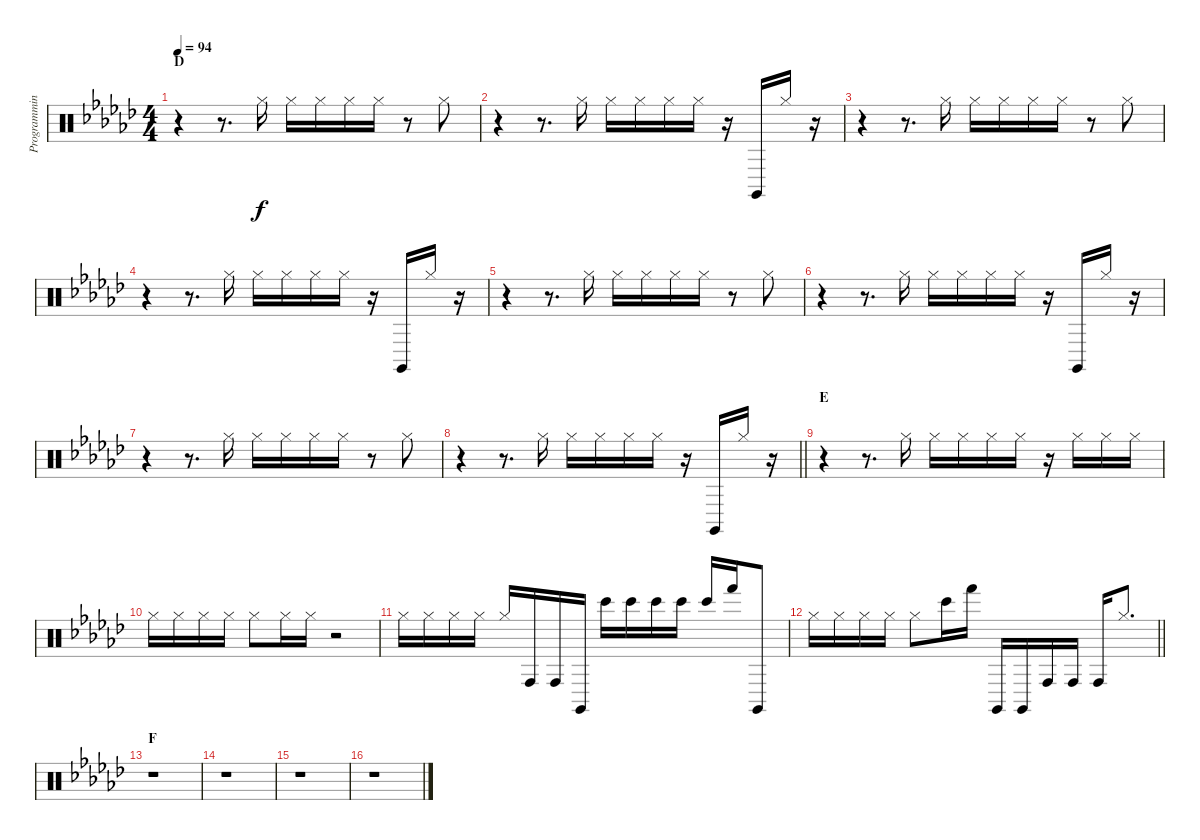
\track ("Programming" "Programmin") {instrument percussion}
\staff {score}
\articulation defaults
\ts (4 4)
\section ("" "D")
\tempo 94
\clef neutral
\ks gb
r.4{dy f} r.8{d} "Hi-Hat (closed)".16 "Hi-Hat (closed)".16 "Hi-Hat (closed)".16 "Hi-Hat (closed)".16 "Hi-Hat (closed)".16 r.8 "Hi-Hat (closed)".8 |
r.4 r.8{d} "Hi-Hat (closed)".16 "Hi-Hat (closed)".16 "Hi-Hat (closed)".16 "Hi-Hat (closed)".16 "Hi-Hat (closed)".16 r.16 "Claves (hit)".16 "Hi-Hat (closed)".16 r.16 |
r.4 r.8{d} "Hi-Hat (closed)".16 "Hi-Hat (closed)".16 "Hi-Hat (closed)".16 "Hi-Hat (closed)".16 "Hi-Hat (closed)".16 r.8 "Hi-Hat (closed)".8 |
r.4 r.8{d} "Hi-Hat (closed)".16 "Hi-Hat (closed)".16 "Hi-Hat (closed)".16 "Hi-Hat (closed)".16 "Hi-Hat (closed)".16 r.16 "Claves (hit)".16 "Hi-Hat (closed)".16 r.16 |
r.4 r.8{d} "Hi-Hat (closed)".16 "Hi-Hat (closed)".16 "Hi-Hat (closed)".16 "Hi-Hat (closed)".16 "Hi-Hat (closed)".16 r.8 "Hi-Hat (closed)".8 |
r.4 r.8{d} "Hi-Hat (closed)".16 "Hi-Hat (closed)".16 "Hi-Hat (closed)".16 "Hi-Hat (closed)".16 "Hi-Hat (closed)".16 r.16 "Claves (hit)".16 "Hi-Hat (closed)".16 r.16 |
r.4 r.8{d} "Hi-Hat (closed)".16 "Hi-Hat (closed)".16 "Hi-Hat (closed)".16 "Hi-Hat (closed)".16 "Hi-Hat (closed)".16 r.8 "Hi-Hat (closed)".8 |
\barLineRight lightlight
r.4 r.8{d} "Hi-Hat (closed)".16 "Hi-Hat (closed)".16 "Hi-Hat (closed)".16 "Hi-Hat (closed)".16 "Hi-Hat (closed)".16 r.16 "Claves (hit)".16 "Hi-Hat (closed)".16 r.16 |
\section ("" "E")
r.4 r.8{d} "Hi-Hat (closed)".16 "Hi-Hat (closed)".16 "Hi-Hat (closed)".16 "Hi-Hat (closed)".16 "Hi-Hat (closed)".16 r.16 "Hi-Hat (closed)".16 "Hi-Hat (closed)".16 "Hi-Hat (closed)".16 |
"Hi-Hat (closed)".16 "Hi-Hat (closed)".16 "Hi-Hat (closed)".16 "Hi-Hat (closed)".16 "Hi-Hat (closed)".8 "Hi-Hat (closed)".16 "Hi-Hat (closed)".16 r.2 |
"Hi-Hat (closed)".16 "Hi-Hat (closed)".16 "Hi-Hat (closed)".16 "Hi-Hat (closed)".16 "Hi-Hat (closed)".16 "Conga high (hit)".16 "Conga high (hit)".16 "Claves (hit)".16 "Bongo High (hit)".16 "Bongo High (hit)".16 "Bongo High (hit)".16 "Bongo High (hit)".16 "Bongo High (hit)".16 "Hand (hit)".16 "Claves (hit)".8 |
\barLineRight lightlight "Hi-Hat (closed)".16 "Hi-Hat (closed)".16 "Hi-Hat (closed)".16 "Hi-Hat (closed)".16 "Hi-Hat (closed)".8 "Bongo High (hit)".16 "Hand (hit)".16 "Claves (hit)".16 "Claves (hit)".16 "Conga high (hit)".16 "Conga high (hit)".16 "Conga high (hit)".16 "Hi-Hat (closed)".8{d}
|
\section ("" "F")
r.1 |
r.1 |
r.1 |
r.1
